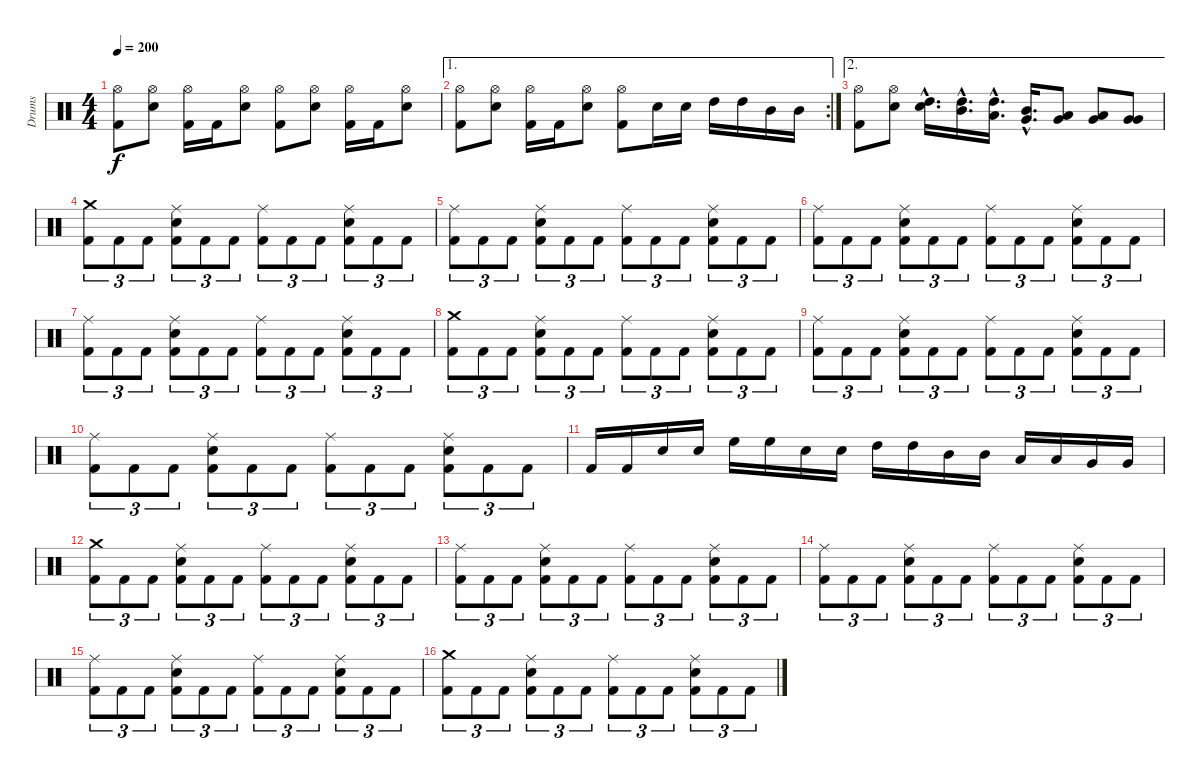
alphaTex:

\track ("Drums" "Drums") {instrument percussion}
\staff {score}
\articulation defaults
\ts (4 4)
\tempo 200
\clef neutral
\ks c
("Hi-Hat (open)" "Kick (hit) 2").8{dy f} ("Hi-Hat (open)" "Electric Snare (hit)").8 ("Hi-Hat (open)" "Kick (hit) 2").16 "Kick (hit) 2".16 ("Hi-Hat (open)" "Electric Snare (hit)").8 ("Hi-Hat (open)" "Kick (hit) 2").8 ("Hi-Hat (open)" "Electric Snare (hit)").8 ("Hi-Hat (open)" "Kick (hit) 2").16 "Kick (hit) 2".16 ("Hi-Hat (open)" "Electric Snare (hit)").8 |
\ae 1
\rc 2
("Hi-Hat (open)" "Kick (hit) 2").8 ("Hi-Hat (open)" "Electric Snare (hit)").8 ("Hi-Hat (open)" "Kick (hit) 2").16 "Kick (hit) 2".16 ("Hi-Hat (open)" "Electric Snare (hit)").8 ("Hi-Hat (open)" "Kick (hit) 2").8 "Electric Snare (hit)".16 "Electric Snare (hit)".16 "High Tom (hit)".16 "High Tom (hit)".16 "Mid Tom (hit)".16 "Mid Tom (hit)".16 |
\ae 2
("Hi-Hat (open)" "Kick (hit) 2").8 ("Hi-Hat (open)" "Electric Snare (hit)").8 ("High Tom (hit)"{hac} "Electric Snare (hit)"{hac}).16{d} ("Mid Tom (hit)"{hac} "High Tom (hit)"{hac}).16{d} ("Low Tom (hit)"{hac} "High Tom (hit)"{hac}).16{d} ("Very Low Tom (hit)"{hac} "Mid Tom (hit)"{hac}).16{d} ("Very Low Tom (hit)" "Low Tom (hit)").8 ("Very Low Tom (hit)" "Low Tom (hit)").8 ("Very Low Tom (hit)" "Very Low Tom (hit)").8 |
("Crash medium (hit)" "Kick (hit) 2").8{tu (3 2)} "Kick (hit) 2".8{tu (3 2)} "Kick (hit) 2".8{tu (3 2)} ("Ride (middle)" "Electric Snare (hit)" "Kick (hit) 2").8{tu (3 2)} "Kick (hit) 2".8{tu (3 2)} "Kick (hit) 2".8{tu (3 2)} ("Ride (middle)" "Kick (hit) 2").8{tu (3 2)} "Kick (hit) 2".8{tu (3 2)} "Kick (hit) 2".8{tu (3 2)} ("Ride (middle)" "Electric Snare (hit)" "Kick (hit) 2").8{tu (3 2)} "Kick (hit) 2".8{tu (3 2)} "Kick (hit) 2".8{tu (3 2)} |
("Ride (middle)" "Kick (hit) 2").8{tu (3 2)} "Kick (hit) 2".8{tu (3 2)} "Kick (hit) 2".8{tu (3 2)} ("Ride (middle)" "Electric Snare (hit)" "Kick (hit) 2").8{tu (3 2)} "Kick (hit) 2".8{tu (3 2)} "Kick (hit) 2".8{tu (3 2)} ("Ride (middle)" "Kick (hit) 2").8{tu (3 2)} "Kick (hit) 2".8{tu (3 2)} "Kick (hit) 2".8{tu (3 2)} ("Ride (middle)" "Electric Snare (hit)" "Kick (hit) 2").8{tu (3 2)} "Kick (hit) 2".8{tu (3 2)} "Kick (hit) 2".8{tu (3 2)} |
("Ride (middle)" "Kick (hit) 2").8{tu (3 2)} "Kick (hit) 2".8{tu (3 2)} "Kick (hit) 2".8{tu (3 2)} ("Ride (middle)" "Electric Snare (hit)" "Kick (hit) 2").8{tu (3 2)} "Kick (hit) 2".8{tu (3 2)} "Kick (hit) 2".8{tu (3 2)} ("Ride (middle)" "Kick (hit) 2").8{tu (3 2)} "Kick (hit) 2".8{tu (3 2)} "Kick (hit) 2".8{tu (3 2)} ("Ride (middle)" "Electric Snare (hit)" "Kick (hit) 2").8{tu (3 2)} "Kick (hit) 2".8{tu (3 2)} "Kick (hit) 2".8{tu (3 2)} |
("Ride (middle)" "Kick (hit) 2").8{tu (3 2)} "Kick (hit) 2".8{tu (3 2)} "Kick (hit) 2".8{tu (3 2)} ("Ride (middle)" "Electric Snare (hit)" "Kick (hit) 2").8{tu (3 2)} "Kick (hit) 2".8{tu (3 2)} "Kick (hit) 2".8{tu (3 2)} ("Ride (middle)" "Kick (hit) 2").8{tu (3 2)} "Kick (hit) 2".8{tu (3 2)} "Kick (hit) 2".8{tu (3 2)} ("Ride (middle)" "Electric Snare (hit)" "Kick (hit) 2").8{tu (3 2)} "Kick (hit) 2".8{tu (3 2)} "Kick (hit) 2".8{tu (3 2)} |
("Crash medium (hit)" "Kick (hit) 2").8{tu (3 2)} "Kick (hit) 2".8{tu (3 2)} "Kick (hit) 2".8{tu (3 2)} ("Ride (middle)" "Electric Snare (hit)" "Kick (hit) 2").8{tu (3 2)} "Kick (hit) 2".8{tu (3 2)} "Kick (hit) 2".8{tu (3 2)} ("Ride (middle)" "Kick (hit) 2").8{tu (3 2)} "Kick (hit) 2".8{tu (3 2)} "Kick (hit) 2".8{tu (3 2)} ("Ride (middle)" "Electric Snare (hit)" "Kick (hit) 2").8{tu (3 2)} "Kick (hit) 2".8{tu (3 2)} "Kick (hit) 2".8{tu (3 2)} |
("Ride (middle)" "Kick (hit) 2").8{tu (3 2)} "Kick (hit) 2".8{tu (3 2)} "Kick (hit) 2".8{tu (3 2)} ("Ride (middle)" "Electric Snare (hit)" "Kick (hit) 2").8{tu (3 2)} "Kick (hit) 2".8{tu (3 2)} "Kick (hit) 2".8{tu (3 2)} ("Ride (middle)" "Kick (hit) 2").8{tu (3 2)} "Kick (hit) 2".8{tu (3 2)} "Kick (hit) 2".8{tu (3 2)} ("Ride (middle)" "Electric Snare (hit)" "Kick (hit) 2").8{tu (3 2)} "Kick (hit) 2".8{tu (3 2)} "Kick (hit) 2".8{tu (3 2)} |
("Ride (middle)" "Kick (hit) 2").8{tu (3 2)} "Kick (hit) 2".8{tu (3 2)} "Kick (hit) 2".8{tu (3 2)} ("Ride (middle)" "Electric Snare (hit)" "Kick (hit) 2").8{tu (3 2)} "Kick (hit) 2".8{tu (3 2)} "Kick (hit) 2".8{tu (3 2)} ("Ride (middle)" "Kick (hit) 2").8{tu (3 2)} "Kick (hit) 2".8{tu (3 2)} "Kick (hit) 2".8{tu (3 2)} ("Ride (middle)" "Electric Snare (hit)" "Kick (hit) 2").8{tu (3 2)} "Kick (hit) 2".8{tu (3 2)} "Kick (hit) 2".8{tu (3 2)} |
"Kick (hit) 2".16 "Kick (hit) 2".16 "Electric Snare (hit)".16 "Electric Snare (hit)".16 "High Floor Tom (hit)".16 "High Floor Tom (hit)".16 "Electric Snare (hit)".16 "Electric Snare (hit)".16 "High Tom (hit)".16 "High Tom (hit)".16 "Mid Tom (hit)".16 "Mid Tom (hit)".16 "Low Tom (hit)".16 "Low Tom (hit)".16 "Very Low Tom (hit)".16 "Very Low Tom (hit)".16 |
("Crash medium (hit)" "Kick (hit) 2").8{tu (3 2)} "Kick (hit) 2".8{tu (3 2)} "Kick (hit) 2".8{tu (3 2)} ("Ride (middle)" "Electric Snare (hit)" "Kick (hit) 2").8{tu (3 2)} "Kick (hit) 2".8{tu (3 2)} "Kick (hit) 2".8{tu (3 2)} ("Ride (middle)" "Kick (hit) 2").8{tu (3 2)} "Kick (hit) 2".8{tu (3 2)} "Kick (hit) 2".8{tu (3 2)} ("Ride (middle)" "Electric Snare (hit)" "Kick (hit) 2").8{tu (3 2)} "Kick (hit) 2".8{tu (3 2)} "Kick (hit) 2".8{tu (3 2)} |
("Ride (middle)" "Kick (hit) 2").8{tu (3 2)} "Kick (hit) 2".8{tu (3 2)} "Kick (hit) 2".8{tu (3 2)} ("Ride (middle)" "Electric Snare (hit)" "Kick (hit) 2").8{tu (3 2)} "Kick (hit) 2".8{tu (3 2)} "Kick (hit) 2".8{tu (3 2)} ("Ride (middle)" "Kick (hit) 2").8{tu (3 2)} "Kick (hit) 2".8{tu (3 2)} "Kick (hit) 2".8{tu (3 2)} ("Ride (middle)" "Electric Snare (hit)" "Kick (hit) 2").8{tu (3 2)} "Kick (hit) 2".8{tu (3 2)} "Kick (hit) 2".8{tu (3 2)} |
("Ride (middle)" "Kick (hit) 2").8{tu (3 2)} "Kick (hit) 2".8{tu (3 2)} "Kick (hit) 2".8{tu (3 2)} ("Ride (middle)" "Electric Snare (hit)" "Kick (hit) 2").8{tu (3 2)} "Kick (hit) 2".8{tu (3 2)} "Kick (hit) 2".8{tu (3 2)} ("Ride (middle)" "Kick (hit) 2").8{tu (3 2)} "Kick (hit) 2".8{tu (3 2)} "Kick (hit) 2".8{tu (3 2)} ("Ride (middle)" "Electric Snare (hit)" "Kick (hit) 2").8{tu (3 2)} "Kick (hit) 2".8{tu (3 2)} "Kick (hit) 2".8{tu (3 2)} |
("Ride (middle)" "Kick (hit) 2").8{tu (3 2)} "Kick (hit) 2".8{tu (3 2)} "Kick (hit) 2".8{tu (3 2)} ("Ride (middle)" "Electric Snare (hit)" "Kick (hit) 2").8{tu (3 2)} "Kick (hit) 2".8{tu (3 2)} "Kick (hit) 2".8{tu (3 2)} ("Ride (middle)" "Kick (hit) 2").8{tu (3 2)} "Kick (hit) 2".8{tu (3 2)} "Kick (hit) 2".8{tu (3 2)} ("Ride (middle)" "Electric Snare (hit)" "Kick (hit) 2").8{tu (3 2)} "Kick (hit) 2".8{tu (3 2)} "Kick (hit) 2".8{tu (3 2)} |
("Crash medium (hit)" "Kick (hit) 2").8{tu (3 2)} "Kick (hit) 2".8{tu (3 2)} "Kick (hit) 2".8{tu (3 2)} ("Ride (middle)" "Electric Snare (hit)" "Kick (hit) 2").8{tu (3 2)} "Kick (hit) 2".8{tu (3 2)} "Kick (hit) 2".8{tu (3 2)} ("Ride (middle)" "Kick (hit) 2").8{tu (3 2)} "Kick (hit) 2".8{tu (3 2)} "Kick (hit) 2".8{tu (3 2)} ("Ride (middle)" "Electric Snare (hit)" "Kick (hit) 2").8{tu (3 2)} "Kick (hit) 2".8{tu (3 2)} "Kick (hit) 2".8{tu (3 2)}
